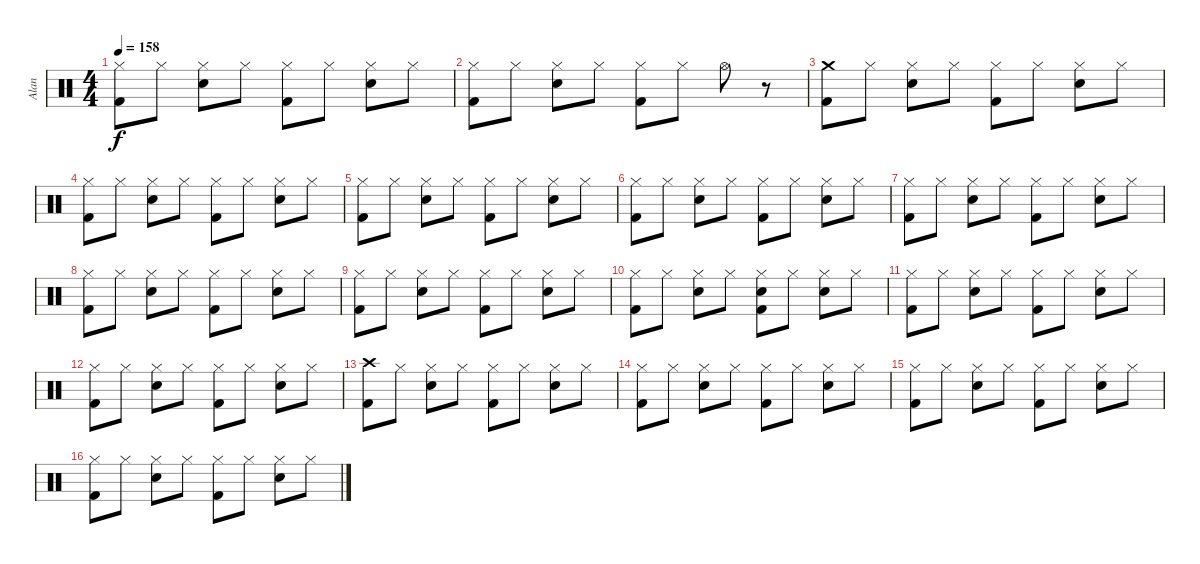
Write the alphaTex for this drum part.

\track ("Alan" "Alan") {instrument percussion}
\staff {score}
\articulation defaults
\ts (4 4)
\tempo 158
\clef neutral
\ks c
("Kick (hit) 2" "Hi-Hat (closed)").8{dy f} "Hi-Hat (closed)".8 ("Hi-Hat (closed)" "Electric Snare (hit)").8 "Hi-Hat (closed)".8 ("Kick (hit) 2" "Hi-Hat (closed)").8 "Hi-Hat (closed)".8 ("Hi-Hat (closed)" "Electric Snare (hit)").8 "Hi-Hat (closed)".8 |
("Kick (hit) 2" "Hi-Hat (closed)").8 "Hi-Hat (closed)".8 ("Hi-Hat (closed)" "Electric Snare (hit)").8 "Hi-Hat (closed)".8 ("Kick (hit) 2" "Hi-Hat (closed)").8 "Hi-Hat (closed)".8 "Hi-Hat (open)".8 r.8 |
("Crash medium (hit)" "Kick (hit) 2").8 "Hi-Hat (closed)".8 ("Hi-Hat (closed)" "Electric Snare (hit)").8 "Hi-Hat (closed)".8 ("Kick (hit) 2" "Hi-Hat (closed)").8 "Hi-Hat (closed)".8 ("Hi-Hat (closed)" "Electric Snare (hit)").8 "Hi-Hat (closed)".8 |
("Kick (hit) 2" "Hi-Hat (closed)").8 "Hi-Hat (closed)".8 ("Hi-Hat (closed)" "Electric Snare (hit)").8 "Hi-Hat (closed)".8 ("Kick (hit) 2" "Hi-Hat (closed)").8 "Hi-Hat (closed)".8 ("Hi-Hat (closed)" "Electric Snare (hit)").8 "Hi-Hat (closed)".8 |
("Kick (hit) 2" "Hi-Hat (closed)").8 "Hi-Hat (closed)".8 ("Hi-Hat (closed)" "Electric Snare (hit)").8 "Hi-Hat (closed)".8 ("Kick (hit) 2" "Hi-Hat (closed)").8 "Hi-Hat (closed)".8 ("Hi-Hat (closed)" "Electric Snare (hit)").8 "Hi-Hat (closed)".8 |
("Kick (hit) 2" "Hi-Hat (closed)").8 "Hi-Hat (closed)".8 ("Hi-Hat (closed)" "Electric Snare (hit)").8 "Hi-Hat (closed)".8 ("Kick (hit) 2" "Hi-Hat (closed)").8 "Hi-Hat (closed)".8 ("Hi-Hat (closed)" "Electric Snare (hit)").8 "Hi-Hat (closed)".8 |
("Kick (hit) 2" "Hi-Hat (closed)").8 "Hi-Hat (closed)".8 ("Hi-Hat (closed)" "Electric Snare (hit)").8 "Hi-Hat (closed)".8 ("Kick (hit) 2" "Hi-Hat (closed)").8 "Hi-Hat (closed)".8 ("Hi-Hat (closed)" "Electric Snare (hit)").8 "Hi-Hat (closed)".8 |
("Kick (hit) 2" "Hi-Hat (closed)").8 "Hi-Hat (closed)".8 ("Hi-Hat (closed)" "Electric Snare (hit)").8 "Hi-Hat (closed)".8 ("Kick (hit) 2" "Hi-Hat (closed)").8 "Hi-Hat (closed)".8 ("Hi-Hat (closed)" "Electric Snare (hit)").8 "Hi-Hat (closed)".8 |
("Kick (hit) 2" "Hi-Hat (closed)").8 "Hi-Hat (closed)".8 ("Hi-Hat (closed)" "Electric Snare (hit)").8 "Hi-Hat (closed)".8 ("Kick (hit) 2" "Hi-Hat (closed)").8 "Hi-Hat (closed)".8 ("Hi-Hat (closed)" "Electric Snare (hit)").8 "Hi-Hat (closed)".8 |
("Kick (hit) 2" "Hi-Hat (closed)").8 "Hi-Hat (closed)".8 ("Hi-Hat (closed)" "Electric Snare (hit)").8 "Hi-Hat (closed)".8 ("Kick (hit) 2" "Hi-Hat (closed)" "Electric Snare (hit)").8 "Hi-Hat (closed)".8 ("Hi-Hat (closed)" "Electric Snare (hit)").8 "Hi-Hat (closed)".8 |
("Kick (hit) 2" "Hi-Hat (closed)").8 "Hi-Hat (closed)".8 ("Hi-Hat (closed)" "Electric Snare (hit)").8 "Hi-Hat (closed)".8 ("Kick (hit) 2" "Hi-Hat (closed)").8 "Hi-Hat (closed)".8 ("Hi-Hat (closed)" "Electric Snare (hit)").8 "Hi-Hat (closed)".8 |
("Kick (hit) 2" "Hi-Hat (closed)").8 "Hi-Hat (closed)".8 ("Hi-Hat (closed)" "Electric Snare (hit)").8 "Hi-Hat (closed)".8 ("Kick (hit) 2" "Hi-Hat (closed)").8 "Hi-Hat (closed)".8 ("Hi-Hat (closed)" "Electric Snare (hit)").8 "Hi-Hat (closed)".8 |
("Crash high (hit)" "Kick (hit) 2").8 "Hi-Hat (closed)".8 ("Hi-Hat (closed)" "Electric Snare (hit)").8 "Hi-Hat (closed)".8 ("Kick (hit) 2" "Hi-Hat (closed)").8 "Hi-Hat (closed)".8 ("Hi-Hat (closed)" "Electric Snare (hit)").8 "Hi-Hat (closed)".8 |
("Kick (hit) 2" "Hi-Hat (closed)").8 "Hi-Hat (closed)".8 ("Hi-Hat (closed)" "Electric Snare (hit)").8 "Hi-Hat (closed)".8 ("Kick (hit) 2" "Hi-Hat (closed)").8 "Hi-Hat (closed)".8 ("Hi-Hat (closed)" "Electric Snare (hit)").8 "Hi-Hat (closed)".8 |
("Kick (hit) 2" "Hi-Hat (closed)").8 "Hi-Hat (closed)".8 ("Hi-Hat (closed)" "Electric Snare (hit)").8 "Hi-Hat (closed)".8 ("Kick (hit) 2" "Hi-Hat (closed)").8 "Hi-Hat (closed)".8 ("Hi-Hat (closed)" "Electric Snare (hit)").8 "Hi-Hat (closed)".8 |
("Kick (hit) 2" "Hi-Hat (closed)").8 "Hi-Hat (closed)".8 ("Hi-Hat (closed)" "Electric Snare (hit)").8 "Hi-Hat (closed)".8 ("Kick (hit) 2" "Hi-Hat (closed)").8 "Hi-Hat (closed)".8 ("Hi-Hat (closed)" "Electric Snare (hit)").8 "Hi-Hat (closed)".8
